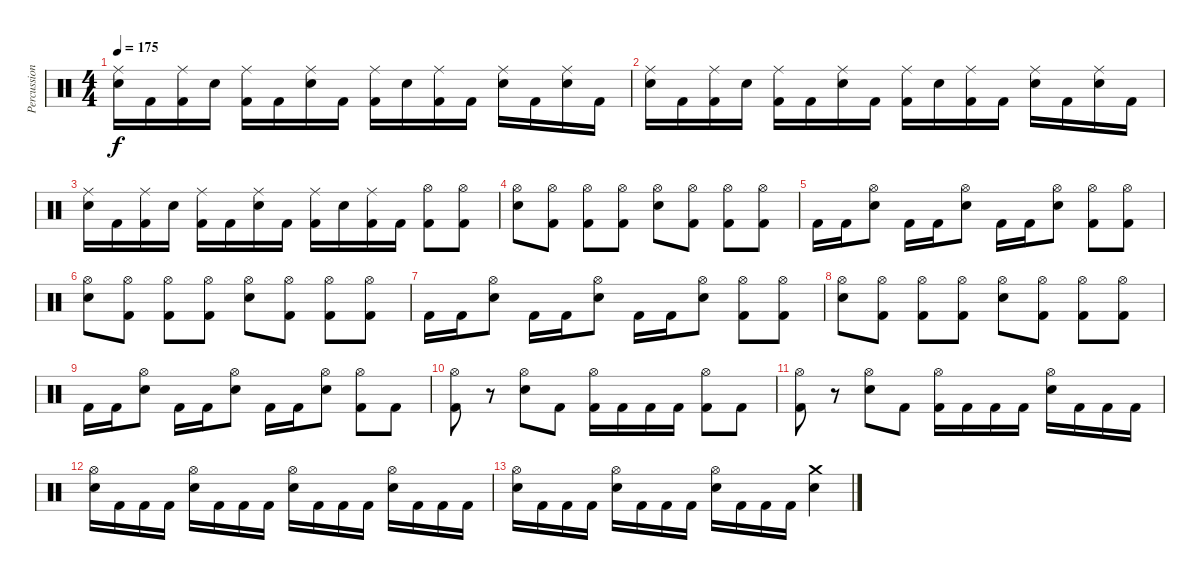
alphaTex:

\track ("Percussion" "Percussion") {instrument percussion}
\staff {score}
\articulation defaults
\ts (4 4)
\tempo 175
\clef neutral
\ks c
("Electric Snare (hit)" "Ride (middle)").16{dy f} "Kick (hit) 2".16 ("Kick (hit) 2" "Ride (middle)").16 "Electric Snare (hit)".16 ("Kick (hit) 2" "Ride (middle)").16 "Kick (hit) 2".16 ("Electric Snare (hit)" "Ride (middle)").16 "Kick (hit) 2".16 ("Kick (hit) 2" "Ride (middle)").16 "Electric Snare (hit)".16 ("Kick (hit) 2" "Ride (middle)").16 "Kick (hit) 2".16 ("Electric Snare (hit)" "Ride (middle)").16 "Kick (hit) 2".16 ("Electric Snare (hit)" "Ride (middle)").16 "Kick (hit) 2".16 |
("Electric Snare (hit)" "Ride (middle)").16 "Kick (hit) 2".16 ("Kick (hit) 2" "Ride (middle)").16 "Electric Snare (hit)".16 ("Kick (hit) 2" "Ride (middle)").16 "Kick (hit) 2".16 ("Electric Snare (hit)" "Ride (middle)").16 "Kick (hit) 2".16 ("Kick (hit) 2" "Ride (middle)").16 "Electric Snare (hit)".16 ("Kick (hit) 2" "Ride (middle)").16 "Kick (hit) 2".16 ("Electric Snare (hit)" "Ride (middle)").16 "Kick (hit) 2".16 ("Electric Snare (hit)" "Ride (middle)").16 "Kick (hit) 2".16 |
("Electric Snare (hit)" "Ride (middle)").16 "Kick (hit) 2".16 ("Kick (hit) 2" "Ride (middle)").16 "Electric Snare (hit)".16 ("Kick (hit) 2" "Ride (middle)").16 "Kick (hit) 2".16 ("Electric Snare (hit)" "Ride (middle)").16 "Kick (hit) 2".16 ("Kick (hit) 2" "Ride (middle)").16 "Electric Snare (hit)".16 ("Kick (hit) 2" "Ride (middle)").16 "Kick (hit) 2".16 ("Kick (hit) 2" "Hi-Hat (open)").8 ("Kick (hit) 2" "Hi-Hat (open)").8 |
("Electric Snare (hit)" "Hi-Hat (open)").8 ("Kick (hit) 2" "Hi-Hat (open)").8 ("Kick (hit) 2" "Hi-Hat (open)").8 ("Kick (hit) 2" "Hi-Hat (open)").8 ("Electric Snare (hit)" "Hi-Hat (open)").8 ("Kick (hit) 2" "Hi-Hat (open)").8 ("Kick (hit) 2" "Hi-Hat (open)").8 ("Kick (hit) 2" "Hi-Hat (open)").8 |
"Kick (hit) 2".16 "Kick (hit) 2".16 ("Electric Snare (hit)" "Hi-Hat (open)").8 "Kick (hit) 2".16 "Kick (hit) 2".16 ("Electric Snare (hit)" "Hi-Hat (open)").8 "Kick (hit) 2".16 "Kick (hit) 2".16 ("Electric Snare (hit)" "Hi-Hat (open)").8 ("Kick (hit) 2" "Hi-Hat (open)").8 ("Kick (hit) 2" "Hi-Hat (open)").8 |
("Electric Snare (hit)" "Hi-Hat (open)").8 ("Kick (hit) 2" "Hi-Hat (open)").8 ("Kick (hit) 2" "Hi-Hat (open)").8 ("Kick (hit) 2" "Hi-Hat (open)").8 ("Electric Snare (hit)" "Hi-Hat (open)").8 ("Kick (hit) 2" "Hi-Hat (open)").8 ("Kick (hit) 2" "Hi-Hat (open)").8 ("Kick (hit) 2" "Hi-Hat (open)").8 |
"Kick (hit) 2".16 "Kick (hit) 2".16 ("Electric Snare (hit)" "Hi-Hat (open)").8 "Kick (hit) 2".16 "Kick (hit) 2".16 ("Electric Snare (hit)" "Hi-Hat (open)").8 "Kick (hit) 2".16 "Kick (hit) 2".16 ("Electric Snare (hit)" "Hi-Hat (open)").8 ("Kick (hit) 2" "Hi-Hat (open)").8 ("Kick (hit) 2" "Hi-Hat (open)").8 |
("Electric Snare (hit)" "Hi-Hat (open)").8 ("Kick (hit) 2" "Hi-Hat (open)").8 ("Kick (hit) 2" "Hi-Hat (open)").8 ("Kick (hit) 2" "Hi-Hat (open)").8 ("Electric Snare (hit)" "Hi-Hat (open)").8 ("Kick (hit) 2" "Hi-Hat (open)").8 ("Kick (hit) 2" "Hi-Hat (open)").8 ("Kick (hit) 2" "Hi-Hat (open)").8 |
"Kick (hit) 2".16 "Kick (hit) 2".16 ("Electric Snare (hit)" "Hi-Hat (open)").8 "Kick (hit) 2".16 "Kick (hit) 2".16 ("Electric Snare (hit)" "Hi-Hat (open)").8 "Kick (hit) 2".16 "Kick (hit) 2".16 ("Electric Snare (hit)" "Hi-Hat (open)").8 ("Kick (hit) 2" "Hi-Hat (open)").8 "Kick (hit) 2".8 |
("Kick (hit) 2" "Hi-Hat (open)").8 r.8 ("Electric Snare (hit)" "Hi-Hat (open)").8 "Kick (hit) 2".8 ("Kick (hit) 2" "Hi-Hat (open)").16 "Kick (hit) 2".16 "Kick (hit) 2".16 "Kick (hit) 2".16 ("Kick (hit) 2" "Hi-Hat (open)").8 "Kick (hit) 2".8 |
("Kick (hit) 2" "Hi-Hat (open)").8 r.8 ("Electric Snare (hit)" "Hi-Hat (open)").8 "Kick (hit) 2".8 ("Kick (hit) 2" "Hi-Hat (open)").16 "Kick (hit) 2".16 "Kick (hit) 2".16 "Kick (hit) 2".16 ("Electric Snare (hit)" "Hi-Hat (open)").16 "Kick (hit) 2".16 "Kick (hit) 2".16 "Kick (hit) 2".16 |
("Electric Snare (hit)" "Hi-Hat (open)").16 "Kick (hit) 2".16 "Kick (hit) 2".16 "Kick (hit) 2".16 ("Electric Snare (hit)" "Hi-Hat (open)").16 "Kick (hit) 2".16 "Kick (hit) 2".16 "Kick (hit) 2".16 ("Electric Snare (hit)" "Hi-Hat (open)").16 "Kick (hit) 2".16 "Kick (hit) 2".16 "Kick (hit) 2".16 ("Electric Snare (hit)" "Hi-Hat (open)").16 "Kick (hit) 2".16 "Kick (hit) 2".16 "Kick (hit) 2".16 |
("Electric Snare (hit)" "Hi-Hat (open)").16 "Kick (hit) 2".16 "Kick (hit) 2".16 "Kick (hit) 2".16 ("Electric Snare (hit)" "Hi-Hat (open)").16 "Kick (hit) 2".16 "Kick (hit) 2".16 "Kick (hit) 2".16 ("Electric Snare (hit)" "Hi-Hat (open)").16 "Kick (hit) 2".16 "Kick (hit) 2".16 "Kick (hit) 2".16 ("Electric Snare (hit)" "Crash medium (hit)").4
